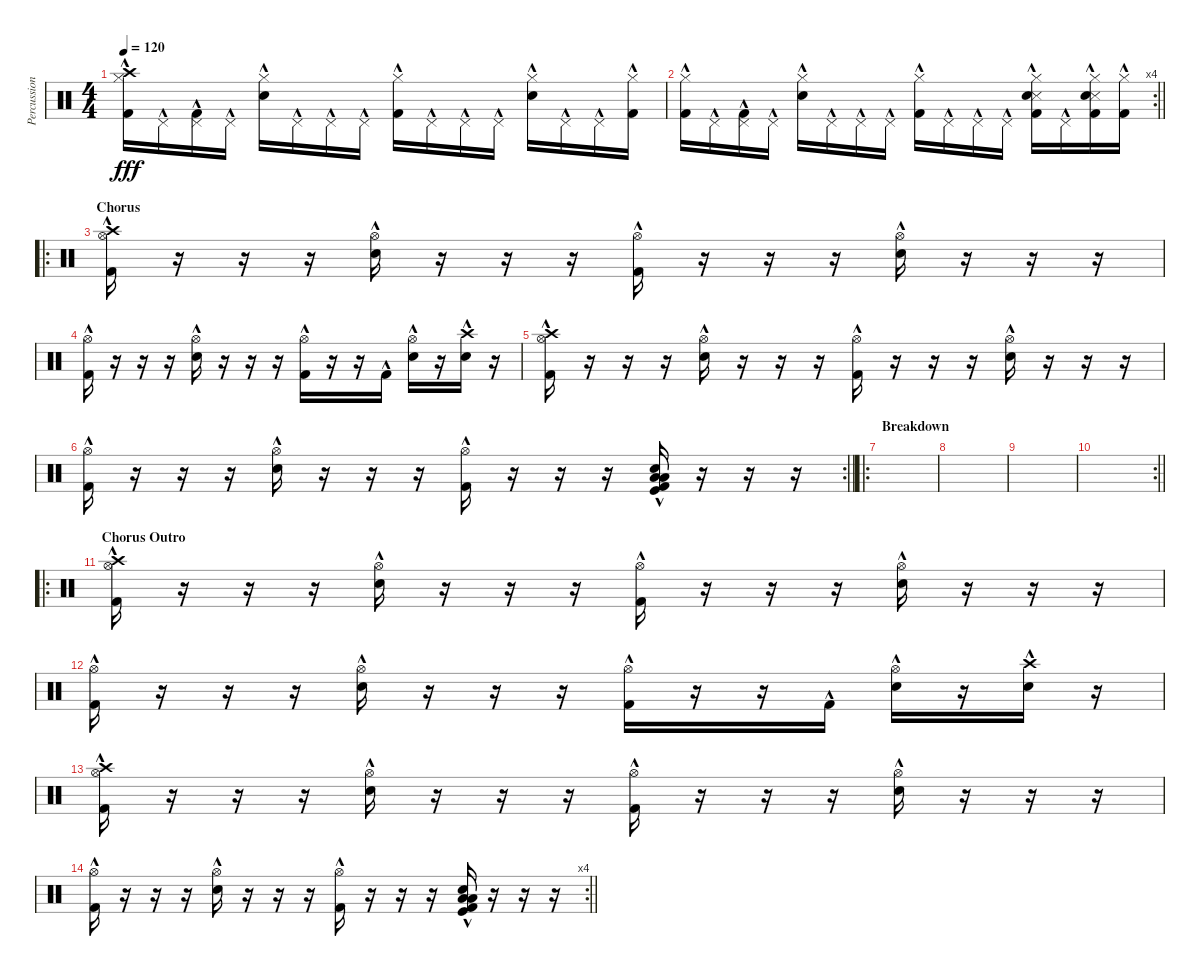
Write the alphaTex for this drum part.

\track ("Percussion" "Percussion") {instrument percussion}
\staff {score}
\articulation defaults
\ts (4 4)
\tempo 120
\clef neutral
\ks c
("Crash high (hit)"{hac} "Hi-Hat (closed)"{hac} "Kick (hit) 2"{hac}).16{dy fff} "Pedal Hi-Hat (hit)"{hac}.16 ("Pedal Hi-Hat (hit)"{hac} "Kick (hit) 2"{hac}).16 "Pedal Hi-Hat (hit)"{hac}.16 ("Hi-Hat (closed)"{hac} "Electric Snare (hit)"{hac}).16 "Pedal Hi-Hat (hit)"{hac}.16 "Pedal Hi-Hat (hit)"{hac}.16 "Pedal Hi-Hat (hit)"{hac}.16 ("Hi-Hat (closed)"{hac} "Kick (hit) 2"{hac}).16 "Pedal Hi-Hat (hit)"{hac}.16 "Pedal Hi-Hat (hit)"{hac}.16 "Pedal Hi-Hat (hit)"{hac}.16 ("Hi-Hat (closed)"{hac} "Electric Snare (hit)"{hac}).16 "Pedal Hi-Hat (hit)"{hac}.16 "Pedal Hi-Hat (hit)"{hac}.16 ("Hi-Hat (closed)"{hac} "Kick (hit) 2"{hac}).16 |
\rc 4
\barLineRight lightlight
("Hi-Hat (closed)"{hac} "Kick (hit) 2"{hac}).16 "Pedal Hi-Hat (hit)"{hac}.16 ("Pedal Hi-Hat (hit)"{hac} "Kick (hit) 2"{hac}).16 "Pedal Hi-Hat (hit)"{hac}.16 ("Hi-Hat (closed)"{hac} "Electric Snare (hit)"{hac}).16 "Pedal Hi-Hat (hit)"{hac}.16 "Pedal Hi-Hat (hit)"{hac}.16 "Pedal Hi-Hat (hit)"{hac}.16 ("Hi-Hat (closed)"{hac} "Kick (hit) 2"{hac}).16 "Pedal Hi-Hat (hit)"{hac}.16 "Pedal Hi-Hat (hit)"{hac}.16 "Pedal Hi-Hat (hit)"{hac}.16 ("Snare (side stick) 3"{hac} "Hi-Hat (closed)"{hac} "Electric Snare (hit)"{hac} "Kick (hit) 2"{hac}).16 "Pedal Hi-Hat (hit)"{hac}.16 ("Snare (side stick) 3"{hac} "Hi-Hat (closed)"{hac} "Electric Snare (hit)"{hac} "Kick (hit) 2"{hac}).16 ("Hi-Hat (closed)"{hac} "Kick (hit) 2"{hac}).16 |
\ro
\section ("" "Chorus")
("Crash high (hit)"{hac} "Hi-Hat (open)"{hac} "Kick (hit) 2"{hac}).16 r.16 r.16 r.16 ("Hi-Hat (open)"{hac} "Snare (hit) 2"{hac}).16 r.16 r.16 r.16 ("Hi-Hat (open)"{hac} "Kick (hit) 2"{hac}).16 r.16 r.16 r.16 ("Hi-Hat (open)"{hac} "Snare (hit) 2"{hac}).16 r.16 r.16 r.16 |
("Hi-Hat (open)"{hac} "Kick (hit) 2"{hac}).16 r.16 r.16 r.16 ("Hi-Hat (open)"{hac} "Snare (hit) 2"{hac}).16 r.16 r.16 r.16 ("Hi-Hat (open)"{hac} "Kick (hit) 2"{hac}).16 r.16 r.16 "Kick (hit) 2"{hac}.16 ("Hi-Hat (open)"{hac} "Snare (hit) 2"{hac}).16 r.16 ("Crash high (hit)"{hac} "Snare (hit) 2"{hac}).16 r.16 |
("Crash high (hit)"{hac} "Hi-Hat (open)"{hac} "Kick (hit) 2"{hac}).16 r.16 r.16 r.16 ("Hi-Hat (open)"{hac} "Snare (hit) 2"{hac}).16 r.16 r.16 r.16 ("Hi-Hat (open)"{hac} "Kick (hit) 2"{hac}).16 r.16 r.16 r.16 ("Hi-Hat (open)"{hac} "Snare (hit) 2"{hac}).16 r.16 r.16 r.16 |
\rc 2
\barLineRight lightlight
("Hi-Hat (open)"{hac} "Kick (hit) 2"{hac}).16 r.16 r.16 r.16 ("Hi-Hat (open)"{hac} "Snare (hit) 2"{hac}).16 r.16 r.16 r.16 ("Hi-Hat (open)"{hac} "Kick (hit) 2"{hac}).16 r.16 r.16 r.16 ("Snare (hit) 2"{hac} "Low Tom (hit)"{hac} "Low Floor Tom (hit)"{hac} "Kick (hit)"{hac} "Kick (hit) 2"{hac}).16 r.16 r.16 r.16 |
\ro
\section ("" "Breakdown")
|
|
|
\rc 2
\barLineRight lightlight
|
\ro
\section ("" "Chorus Outro")
("Crash high (hit)"{hac} "Hi-Hat (open)"{hac} "Kick (hit) 2"{hac}).16 r.16 r.16 r.16 ("Hi-Hat (open)"{hac} "Snare (hit) 2"{hac}).16 r.16 r.16 r.16 ("Hi-Hat (open)"{hac} "Kick (hit) 2"{hac}).16 r.16 r.16 r.16 ("Hi-Hat (open)"{hac} "Snare (hit) 2"{hac}).16 r.16 r.16 r.16 |
("Hi-Hat (open)"{hac} "Kick (hit) 2"{hac}).16 r.16 r.16 r.16 ("Hi-Hat (open)"{hac} "Snare (hit) 2"{hac}).16 r.16 r.16 r.16 ("Hi-Hat (open)"{hac} "Kick (hit) 2"{hac}).16 r.16 r.16 "Kick (hit) 2"{hac}.16 ("Hi-Hat (open)"{hac} "Snare (hit) 2"{hac}).16 r.16 ("Crash high (hit)"{hac} "Snare (hit) 2"{hac}).16 r.16 |
("Crash high (hit)"{hac} "Hi-Hat (open)"{hac} "Kick (hit) 2"{hac}).16 r.16 r.16 r.16 ("Hi-Hat (open)"{hac} "Snare (hit) 2"{hac}).16 r.16 r.16 r.16 ("Hi-Hat (open)"{hac} "Kick (hit) 2"{hac}).16 r.16 r.16 r.16 ("Hi-Hat (open)"{hac} "Snare (hit) 2"{hac}).16 r.16 r.16 r.16 |
\rc 4
\barLineRight lightlight
("Hi-Hat (open)"{hac} "Kick (hit) 2"{hac}).16 r.16 r.16 r.16 ("Hi-Hat (open)"{hac} "Snare (hit) 2"{hac}).16 r.16 r.16 r.16 ("Hi-Hat (open)"{hac} "Kick (hit) 2"{hac}).16 r.16 r.16 r.16 ("Snare (hit) 2"{hac} "Low Tom (hit)"{hac} "Low Floor Tom (hit)"{hac} "Kick (hit)"{hac} "Kick (hit) 2"{hac}).16 r.16 r.16 r.16
